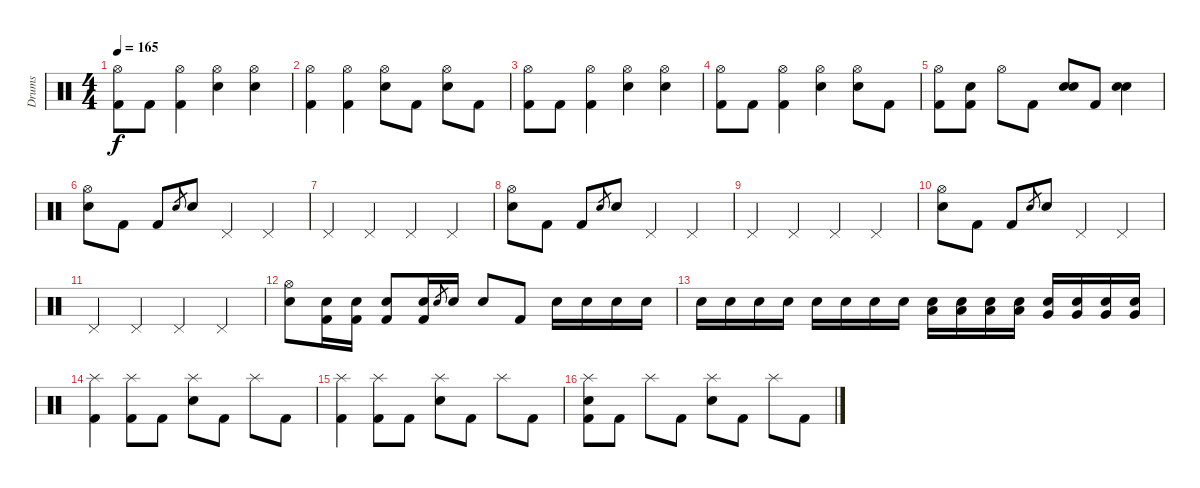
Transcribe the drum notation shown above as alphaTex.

\track ("Drums" "Drums") {instrument percussion}
\staff {score}
\articulation defaults
\ts (4 4)
\tempo 165
\clef neutral
\ks c
("Hi-Hat (open)" "Kick (hit) 2").8{dy f} "Kick (hit) 2".8 ("Hi-Hat (open)" "Kick (hit) 2").4 ("Hi-Hat (open)" "Electric Snare (hit)").4 ("Hi-Hat (open)" "Electric Snare (hit)").4 |
("Hi-Hat (open)" "Kick (hit) 2").4 ("Hi-Hat (open)" "Kick (hit) 2").4 ("Hi-Hat (open)" "Electric Snare (hit)").8 "Kick (hit) 2".8 ("Hi-Hat (open)" "Electric Snare (hit)").8 "Kick (hit) 2".8 |
("Hi-Hat (open)" "Kick (hit) 2").8 "Kick (hit) 2".8 ("Hi-Hat (open)" "Kick (hit) 2").4 ("Hi-Hat (open)" "Electric Snare (hit)").4 ("Hi-Hat (open)" "Electric Snare (hit)").4 |
("Hi-Hat (open)" "Kick (hit) 2").8 "Kick (hit) 2".8 ("Hi-Hat (open)" "Kick (hit) 2").4 ("Hi-Hat (open)" "Electric Snare (hit)").4 ("Hi-Hat (open)" "Electric Snare (hit)").8 "Kick (hit) 2".8 |
("Hi-Hat (open)" "Kick (hit) 2").8 ("Electric Snare (hit)" "Kick (hit) 2").8 "Hi-Hat (open)".8 "Kick (hit) 2".8 ("Electric Snare (hit)" "Snare (hit) 2").8 "Kick (hit) 2".8 ("Electric Snare (hit)" "Snare (hit) 2").4 |
("Hi-Hat (open)" "Electric Snare (hit)").8 "Kick (hit) 2".8 "Kick (hit) 2".8 "Snare (hit) 2".8{gr} "Electric Snare (hit)".8 "Pedal Hi-Hat (hit)".4 "Pedal Hi-Hat (hit)".4 |
"Pedal Hi-Hat (hit)".4 "Pedal Hi-Hat (hit)".4 "Pedal Hi-Hat (hit)".4 "Pedal Hi-Hat (hit)".4 |
("Hi-Hat (open)" "Electric Snare (hit)").8 "Kick (hit) 2".8 "Kick (hit) 2".8 "Snare (hit) 2".8{gr} "Electric Snare (hit)".8 "Pedal Hi-Hat (hit)".4 "Pedal Hi-Hat (hit)".4 |
"Pedal Hi-Hat (hit)".4 "Pedal Hi-Hat (hit)".4 "Pedal Hi-Hat (hit)".4 "Pedal Hi-Hat (hit)".4 |
("Hi-Hat (open)" "Electric Snare (hit)").8 "Kick (hit) 2".8 "Kick (hit) 2".8 "Snare (hit) 2".8{gr} "Electric Snare (hit)".8 "Pedal Hi-Hat (hit)".4 "Pedal Hi-Hat (hit)".4 |
"Pedal Hi-Hat (hit)".4 "Pedal Hi-Hat (hit)".4 "Pedal Hi-Hat (hit)".4 "Pedal Hi-Hat (hit)".4 |
("Hi-Hat (open)" "Snare (hit) 2").8 ("Electric Snare (hit)" "Kick (hit) 2").16 ("Electric Snare (hit)" "Kick (hit) 2").16 ("Snare (hit) 2" "Kick (hit) 2").8 ("Snare (hit) 2" "Kick (hit) 2").16 "Snare (hit) 2".8{gr} "Snare (hit) 2".16 "Electric Snare (hit)".8 "Kick (hit) 2".8 "Electric Snare (hit)".16 "Electric Snare (hit)".16 "Electric Snare (hit)".16 "Electric Snare (hit)".16 |
"Electric Snare (hit)".16 "Electric Snare (hit)".16 "Electric Snare (hit)".16 "Electric Snare (hit)".16 "Electric Snare (hit)".16 "Electric Snare (hit)".16 "Electric Snare (hit)".16 "Electric Snare (hit)".16 ("Low Tom (hit)" "Electric Snare (hit)").16 ("Low Tom (hit)" "Electric Snare (hit)").16 ("Low Tom (hit)" "Electric Snare (hit)").16 ("Low Tom (hit)" "Electric Snare (hit)").16 ("Very Low Tom (hit)" "Snare (hit) 2").16 ("Very Low Tom (hit)" "Snare (hit) 2").16 ("Very Low Tom (hit)" "Snare (hit) 2").16 ("Very Low Tom (hit)" "Snare (hit) 2").16 |
("Splash (hit)" "Kick (hit) 2").4 ("Splash (hit)" "Kick (hit) 2").8 "Kick (hit) 2".8 ("Splash (hit)" "Electric Snare (hit)").8 "Kick (hit) 2".8 "Splash (hit)".8 "Kick (hit) 2".8 |
("Splash (hit)" "Kick (hit) 2").4 ("Splash (hit)" "Kick (hit) 2").8 "Kick (hit) 2".8 ("Splash (hit)" "Electric Snare (hit)").8 "Kick (hit) 2".8 "Splash (hit)".8 "Kick (hit) 2".8 |
("Splash (hit)" "Electric Snare (hit)" "Kick (hit) 2").8 "Kick (hit) 2".8 "Splash (hit)".8 "Kick (hit) 2".8 ("Splash (hit)" "Electric Snare (hit)").8 "Kick (hit) 2".8 "Splash (hit)".8 "Kick (hit) 2".8
